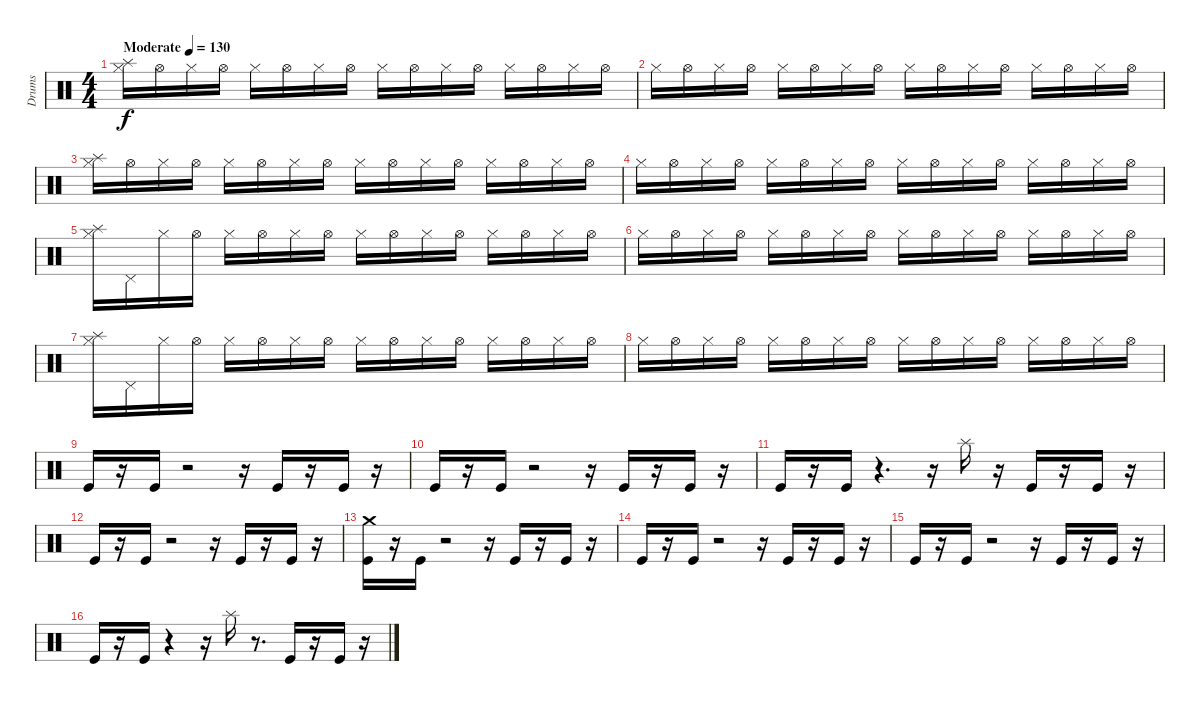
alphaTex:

\track ("Drums" "Drums") {instrument percussion}
\staff {score}
\articulation defaults
\ts (4 4)
\tempo (130 "Moderate")
\clef neutral
\ks c
("Splash (hit)" "Hi-Hat (closed)").16{dy f} "Hi-Hat (open)".16 "Hi-Hat (closed)".16 "Hi-Hat (open)".16 "Hi-Hat (closed)".16 "Hi-Hat (open)".16 "Hi-Hat (closed)".16 "Hi-Hat (open)".16 "Hi-Hat (closed)".16 "Hi-Hat (open)".16 "Hi-Hat (closed)".16 "Hi-Hat (open)".16 "Hi-Hat (closed)".16 "Hi-Hat (open)".16 "Hi-Hat (closed)".16 "Hi-Hat (open)".16 |
"Hi-Hat (closed)".16 "Hi-Hat (open)".16 "Hi-Hat (closed)".16 "Hi-Hat (open)".16 "Hi-Hat (closed)".16 "Hi-Hat (open)".16 "Hi-Hat (closed)".16 "Hi-Hat (open)".16 "Hi-Hat (closed)".16 "Hi-Hat (open)".16 "Hi-Hat (closed)".16 "Hi-Hat (open)".16 "Hi-Hat (closed)".16 "Hi-Hat (open)".16 "Hi-Hat (closed)".16 "Hi-Hat (open)".16 |
("Splash (hit)" "Hi-Hat (closed)").16 "Hi-Hat (open)".16 "Hi-Hat (closed)".16 "Hi-Hat (open)".16 "Hi-Hat (closed)".16 "Hi-Hat (open)".16 "Hi-Hat (closed)".16 "Hi-Hat (open)".16 "Hi-Hat (closed)".16 "Hi-Hat (open)".16 "Hi-Hat (closed)".16 "Hi-Hat (open)".16 "Hi-Hat (closed)".16 "Hi-Hat (open)".16 "Hi-Hat (closed)".16 "Hi-Hat (open)".16 |
"Hi-Hat (closed)".16 "Hi-Hat (open)".16 "Hi-Hat (closed)".16 "Hi-Hat (open)".16 "Hi-Hat (closed)".16 "Hi-Hat (open)".16 "Hi-Hat (closed)".16 "Hi-Hat (open)".16 "Hi-Hat (closed)".16 "Hi-Hat (open)".16 "Hi-Hat (closed)".16 "Hi-Hat (open)".16 "Hi-Hat (closed)".16 "Hi-Hat (open)".16 "Hi-Hat (closed)".16 "Hi-Hat (open)".16 |
("Splash (hit)" "Hi-Hat (closed)").16 "Pedal Hi-Hat (hit)".16 "Hi-Hat (closed)".16 "Hi-Hat (open)".16 "Hi-Hat (closed)".16 "Hi-Hat (open)".16 "Hi-Hat (closed)".16 "Hi-Hat (open)".16 "Hi-Hat (closed)".16 "Hi-Hat (open)".16 "Hi-Hat (closed)".16 "Hi-Hat (open)".16 "Hi-Hat (closed)".16 "Hi-Hat (open)".16 "Hi-Hat (closed)".16 "Hi-Hat (open)".16 |
"Hi-Hat (closed)".16 "Hi-Hat (open)".16 "Hi-Hat (closed)".16 "Hi-Hat (open)".16 "Hi-Hat (closed)".16 "Hi-Hat (open)".16 "Hi-Hat (closed)".16 "Hi-Hat (open)".16 "Hi-Hat (closed)".16 "Hi-Hat (open)".16 "Hi-Hat (closed)".16 "Hi-Hat (open)".16 "Hi-Hat (closed)".16 "Hi-Hat (open)".16 "Hi-Hat (closed)".16 "Hi-Hat (open)".16 |
("Splash (hit)" "Hi-Hat (closed)").16 "Pedal Hi-Hat (hit)".16 "Hi-Hat (closed)".16 "Hi-Hat (open)".16 "Hi-Hat (closed)".16 "Hi-Hat (open)".16 "Hi-Hat (closed)".16 "Hi-Hat (open)".16 "Hi-Hat (closed)".16 "Hi-Hat (open)".16 "Hi-Hat (closed)".16 "Hi-Hat (open)".16 "Hi-Hat (closed)".16 "Hi-Hat (open)".16 "Hi-Hat (closed)".16 "Hi-Hat (open)".16 |
"Hi-Hat (closed)".16 "Hi-Hat (open)".16 "Hi-Hat (closed)".16 "Hi-Hat (open)".16 "Hi-Hat (closed)".16 "Hi-Hat (open)".16 "Hi-Hat (closed)".16 "Hi-Hat (open)".16 "Hi-Hat (closed)".16 "Hi-Hat (open)".16 "Hi-Hat (closed)".16 "Hi-Hat (open)".16 "Hi-Hat (closed)".16 "Hi-Hat (open)".16 "Hi-Hat (closed)".16 "Hi-Hat (open)".16 |
"Kick (hit)".16 r.16 "Kick (hit)".16 r.2 r.16 "Kick (hit)".16 r.16 "Kick (hit)".16 r.16 |
"Kick (hit)".16 r.16 "Kick (hit)".16 r.2 r.16 "Kick (hit)".16 r.16 "Kick (hit)".16 r.16 |
"Kick (hit)".16 r.16 "Kick (hit)".16 r.4{d} r.16 "Splash (hit)".16 r.16 "Kick (hit)".16 r.16 "Kick (hit)".16 r.16 |
"Kick (hit)".16 r.16 "Kick (hit)".16 r.2 r.16 "Kick (hit)".16 r.16 "Kick (hit)".16 r.16 |
("Crash medium (hit)" "Kick (hit)").16 r.16 "Kick (hit)".16 r.2 r.16 "Kick (hit)".16 r.16 "Kick (hit)".16 r.16 |
"Kick (hit)".16 r.16 "Kick (hit)".16 r.2 r.16 "Kick (hit)".16 r.16 "Kick (hit)".16 r.16 |
"Kick (hit)".16 r.16 "Kick (hit)".16 r.2 r.16 "Kick (hit)".16 r.16 "Kick (hit)".16 r.16 |
"Kick (hit)".16 r.16 "Kick (hit)".16 r.4 r.16 "Splash (hit)".16 r.8{d} "Kick (hit)".16 r.16 "Kick (hit)".16 r.16
